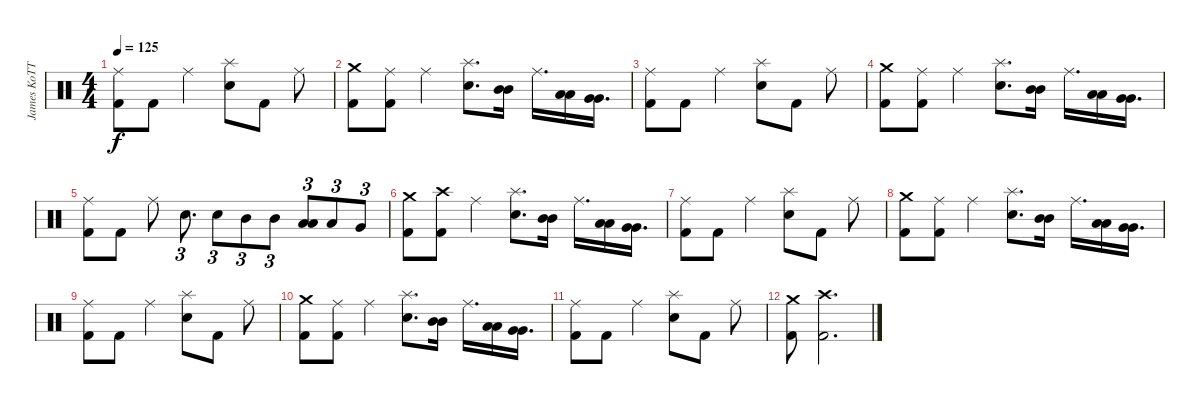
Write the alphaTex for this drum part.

\track ("James KoTTak" "James KoTT") {instrument percussion}
\staff {score}
\articulation defaults
\ts (4 4)
\tempo 125
\clef neutral
\ks c
("Kick (hit) 2" "Ride (middle)").8{dy f} "Kick (hit) 2".8 "Ride (middle)".4 ("Snare (hit) 2" "Splash (hit)").8 "Kick (hit) 2".8 "Ride (middle)".8 |
("Kick (hit) 2" "Crash medium (hit)").8 ("Kick (hit) 2" "Ride (middle)").8 "Ride (middle)".4 ("Snare (hit) 2" "Splash (hit)").8{d} ("Mid Tom (hit)" "Mid Tom (hit)").16{bd 120} "Ride (middle)".16{d} ("Low Tom (hit)" "Low Tom (hit)").16{bd 120} ("Very Low Tom (hit)" "Very Low Tom (hit)").16{d bu 120} |
("Kick (hit) 2" "Ride (middle)").8 "Kick (hit) 2".8 "Ride (middle)".4 ("Snare (hit) 2" "Splash (hit)").8 "Kick (hit) 2".8 "Ride (middle)".8 |
("Kick (hit) 2" "Crash medium (hit)").8 ("Kick (hit) 2" "Ride (middle)").8 "Ride (middle)".4 ("Snare (hit) 2" "Splash (hit)").8{d} ("Mid Tom (hit)" "Mid Tom (hit)").16{bd 120} "Ride (middle)".16{d} ("Low Tom (hit)" "Low Tom (hit)").16{bd 120} ("Very Low Tom (hit)" "Very Low Tom (hit)").16{d bu 120} |
("Kick (hit) 2" "Ride (middle)").8 "Kick (hit) 2".8 "Ride (middle)".8 "Snare (hit) 2".8{d tu (3 2)} "Snare (hit) 2".8{tu (3 2)} "Mid Tom (hit)".8{tu (3 2)} "Mid Tom (hit)".8{tu (3 2) bd 120} ("Low Tom (hit)" "Low Tom (hit)").8{tu (3 2) bd 120} "Low Tom (hit)".8{tu (3 2)} "Very Low Tom (hit)".8{tu (3 2)} |
("Kick (hit) 2" "Crash medium (hit)").8 ("Kick (hit) 2" "Crash high (hit)").8 "Ride (middle)".4 ("Snare (hit) 2" "Splash (hit)").8{d} ("Mid Tom (hit)" "Mid Tom (hit)").16{bd 120} "Ride (middle)".16{d} ("Low Tom (hit)" "Low Tom (hit)").16{bd 120} ("Very Low Tom (hit)" "Very Low Tom (hit)").16{d bu 120} |
("Kick (hit) 2" "Ride (middle)").8 "Kick (hit) 2".8 "Ride (middle)".4 ("Snare (hit) 2" "Splash (hit)").8 "Kick (hit) 2".8 "Ride (middle)".8 |
("Kick (hit) 2" "Crash medium (hit)").8 ("Kick (hit) 2" "Ride (middle)").8 "Ride (middle)".4 ("Snare (hit) 2" "Splash (hit)").8{d} ("Mid Tom (hit)" "Mid Tom (hit)").16{bd 120} "Ride (middle)".16{d} ("Low Tom (hit)" "Low Tom (hit)").16{bd 120} ("Very Low Tom (hit)" "Very Low Tom (hit)").16{d bu 120} |
("Kick (hit) 2" "Ride (middle)").8 "Kick (hit) 2".8 "Ride (middle)".4 ("Snare (hit) 2" "Splash (hit)").8 "Kick (hit) 2".8 "Ride (middle)".8 |
("Kick (hit) 2" "Crash medium (hit)").8 ("Kick (hit) 2" "Ride (middle)").8 "Ride (middle)".4 ("Snare (hit) 2" "Splash (hit)").8{d} ("Mid Tom (hit)" "Mid Tom (hit)").16{bd 120} "Ride (middle)".16{d} ("Low Tom (hit)" "Low Tom (hit)").16{bd 120} ("Very Low Tom (hit)" "Very Low Tom (hit)").16{d bu 120} |
("Kick (hit) 2" "Ride (middle)").8 "Kick (hit) 2".8 "Ride (middle)".4 ("Snare (hit) 2" "Splash (hit)").8 "Kick (hit) 2".8 "Ride (middle)".8 |
("Kick (hit) 2" "Crash medium (hit)").8 ("Kick (hit) 2" "Crash high (hit)").2{d}
